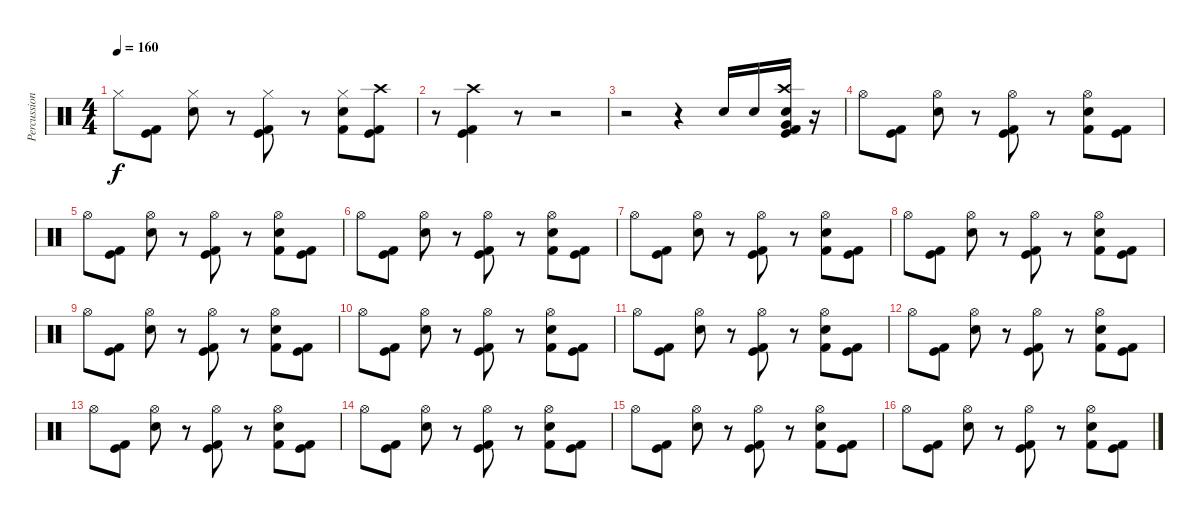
\track ("Percussions" "Percussion") {instrument percussion}
\staff {score}
\articulation defaults
\ts (4 4)
\tempo 160
\clef neutral
\ks c "Hi-Hat (closed)".8{dy f}
("Kick (hit) 2" "Kick (hit)").8 ("Snare (hit) 2" "Hi-Hat (closed)").8 r.8 ("Kick (hit) 2" "Kick (hit)" "Hi-Hat (closed)").8 r.8 ("Kick (hit) 2" "Snare (hit) 2" "Hi-Hat (closed)").8 ("Kick (hit) 2" "Kick (hit)" "Crash high (hit)").8 |
r.8 ("Kick (hit) 2" "Kick (hit)" "Crash high (hit)").4 r.8 r.2 |
r.2 r.4 "Snare (hit) 2".16 "Snare (hit) 2".16 ("Snare (hit) 2" "Kick (hit)" "Kick (hit) 2" "Very Low Tom (hit)" "Crash high (hit)").16 r.16 |
"Hi-Hat (open)".8 ("Kick (hit) 2" "Kick (hit)").8 ("Snare (hit) 2" "Hi-Hat (open)").8 r.8 ("Kick (hit) 2" "Kick (hit)" "Hi-Hat (open)").8 r.8 ("Kick (hit) 2" "Snare (hit) 2" "Hi-Hat (open)").8 ("Kick (hit) 2" "Kick (hit)").8 |
"Hi-Hat (open)".8 ("Kick (hit) 2" "Kick (hit)").8 ("Snare (hit) 2" "Hi-Hat (open)").8 r.8 ("Kick (hit) 2" "Kick (hit)" "Hi-Hat (open)").8 r.8 ("Kick (hit) 2" "Snare (hit) 2" "Hi-Hat (open)").8 ("Kick (hit) 2" "Kick (hit)").8 |
"Hi-Hat (open)".8 ("Kick (hit) 2" "Kick (hit)").8 ("Snare (hit) 2" "Hi-Hat (open)").8 r.8 ("Kick (hit) 2" "Kick (hit)" "Hi-Hat (open)").8 r.8 ("Kick (hit) 2" "Snare (hit) 2" "Hi-Hat (open)").8 ("Kick (hit) 2" "Kick (hit)").8 |
"Hi-Hat (open)".8 ("Kick (hit) 2" "Kick (hit)").8 ("Snare (hit) 2" "Hi-Hat (open)").8 r.8 ("Kick (hit) 2" "Kick (hit)" "Hi-Hat (open)").8 r.8 ("Kick (hit) 2" "Snare (hit) 2" "Hi-Hat (open)").8 ("Kick (hit) 2" "Kick (hit)").8 |
"Hi-Hat (open)".8 ("Kick (hit) 2" "Kick (hit)").8 ("Snare (hit) 2" "Hi-Hat (open)").8 r.8 ("Kick (hit) 2" "Kick (hit)" "Hi-Hat (open)").8 r.8 ("Kick (hit) 2" "Snare (hit) 2" "Hi-Hat (open)").8 ("Kick (hit) 2" "Kick (hit)").8 |
"Hi-Hat (open)".8 ("Kick (hit) 2" "Kick (hit)").8 ("Snare (hit) 2" "Hi-Hat (open)").8 r.8 ("Kick (hit) 2" "Kick (hit)" "Hi-Hat (open)").8 r.8 ("Kick (hit) 2" "Snare (hit) 2" "Hi-Hat (open)").8 ("Kick (hit) 2" "Kick (hit)").8 |
"Hi-Hat (open)".8 ("Kick (hit) 2" "Kick (hit)").8 ("Snare (hit) 2" "Hi-Hat (open)").8 r.8 ("Kick (hit) 2" "Kick (hit)" "Hi-Hat (open)").8 r.8 ("Kick (hit) 2" "Snare (hit) 2" "Hi-Hat (open)").8 ("Kick (hit) 2" "Kick (hit)").8 |
"Hi-Hat (open)".8 ("Kick (hit) 2" "Kick (hit)").8 ("Snare (hit) 2" "Hi-Hat (open)").8 r.8 ("Kick (hit) 2" "Kick (hit)" "Hi-Hat (open)").8 r.8 ("Kick (hit) 2" "Snare (hit) 2" "Hi-Hat (open)").8 ("Kick (hit) 2" "Kick (hit)").8 |
"Hi-Hat (open)".8 ("Kick (hit) 2" "Kick (hit)").8 ("Snare (hit) 2" "Hi-Hat (open)").8 r.8 ("Kick (hit) 2" "Kick (hit)" "Hi-Hat (open)").8 r.8 ("Kick (hit) 2" "Snare (hit) 2" "Hi-Hat (open)").8 ("Kick (hit) 2" "Kick (hit)").8 |
"Hi-Hat (open)".8 ("Kick (hit) 2" "Kick (hit)").8 ("Snare (hit) 2" "Hi-Hat (open)").8 r.8 ("Kick (hit) 2" "Kick (hit)" "Hi-Hat (open)").8 r.8 ("Kick (hit) 2" "Snare (hit) 2" "Hi-Hat (open)").8 ("Kick (hit) 2" "Kick (hit)").8 |
"Hi-Hat (open)".8 ("Kick (hit) 2" "Kick (hit)").8 ("Snare (hit) 2" "Hi-Hat (open)").8 r.8 ("Kick (hit) 2" "Kick (hit)" "Hi-Hat (open)").8 r.8 ("Kick (hit) 2" "Snare (hit) 2" "Hi-Hat (open)").8 ("Kick (hit) 2" "Kick (hit)").8 |
"Hi-Hat (open)".8 ("Kick (hit) 2" "Kick (hit)").8 ("Snare (hit) 2" "Hi-Hat (open)").8 r.8 ("Kick (hit) 2" "Kick (hit)" "Hi-Hat (open)").8 r.8 ("Kick (hit) 2" "Snare (hit) 2" "Hi-Hat (open)").8 ("Kick (hit) 2" "Kick (hit)").8 |
"Hi-Hat (open)".8 ("Kick (hit) 2" "Kick (hit)").8 ("Snare (hit) 2" "Hi-Hat (open)").8 r.8 ("Kick (hit) 2" "Kick (hit)" "Hi-Hat (open)").8 r.8 ("Kick (hit) 2" "Snare (hit) 2" "Hi-Hat (open)").8 ("Kick (hit) 2" "Kick (hit)").8
